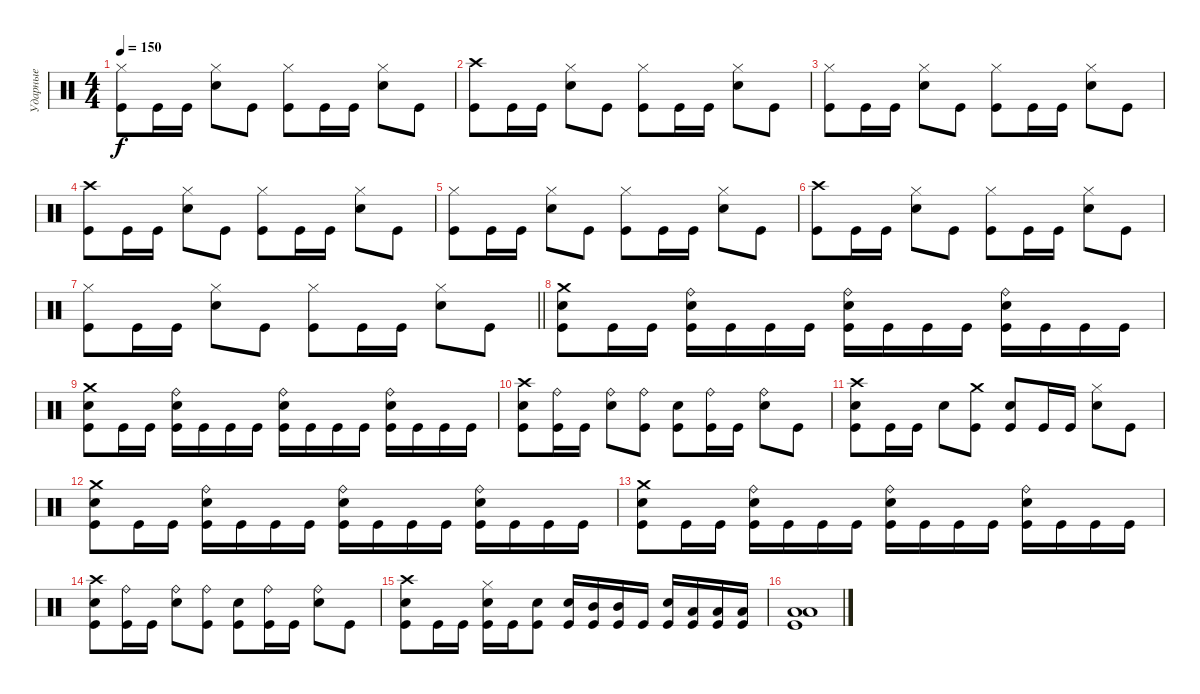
\track ("Ударные" "Ударные") {instrument percussion}
\staff {score}
\articulation defaults
\ts (4 4)
\tempo 150
\clef neutral
\ks c
("Hi-Hat (closed)" "Kick (hit)").8{dy f} "Kick (hit)".16 "Kick (hit)".16 ("Hi-Hat (closed)" "Electric Snare (hit)").8 "Kick (hit)".8 ("Hi-Hat (closed)" "Kick (hit)").8 "Kick (hit)".16 "Kick (hit)".16 ("Hi-Hat (closed)" "Electric Snare (hit)").8 "Kick (hit)".8 |
("Crash high (hit)" "Kick (hit)").8 "Kick (hit)".16 "Kick (hit)".16 ("Hi-Hat (closed)" "Electric Snare (hit)").8 "Kick (hit)".8 ("Hi-Hat (closed)" "Kick (hit)").8 "Kick (hit)".16 "Kick (hit)".16 ("Hi-Hat (closed)" "Electric Snare (hit)").8 "Kick (hit)".8 |
("Hi-Hat (closed)" "Kick (hit)").8 "Kick (hit)".16 "Kick (hit)".16 ("Hi-Hat (closed)" "Electric Snare (hit)").8 "Kick (hit)".8 ("Hi-Hat (closed)" "Kick (hit)").8 "Kick (hit)".16 "Kick (hit)".16 ("Hi-Hat (closed)" "Electric Snare (hit)").8 "Kick (hit)".8 |
("Crash high (hit)" "Kick (hit)").8 "Kick (hit)".16 "Kick (hit)".16 ("Hi-Hat (closed)" "Electric Snare (hit)").8 "Kick (hit)".8 ("Hi-Hat (closed)" "Kick (hit)").8 "Kick (hit)".16 "Kick (hit)".16 ("Hi-Hat (closed)" "Electric Snare (hit)").8 "Kick (hit)".8 |
("Hi-Hat (closed)" "Kick (hit)").8 "Kick (hit)".16 "Kick (hit)".16 ("Hi-Hat (closed)" "Electric Snare (hit)").8 "Kick (hit)".8 ("Hi-Hat (closed)" "Kick (hit)").8 "Kick (hit)".16 "Kick (hit)".16 ("Hi-Hat (closed)" "Electric Snare (hit)").8 "Kick (hit)".8 |
("Crash high (hit)" "Kick (hit)").8 "Kick (hit)".16 "Kick (hit)".16 ("Hi-Hat (closed)" "Electric Snare (hit)").8 "Kick (hit)".8 ("Hi-Hat (closed)" "Kick (hit)").8 "Kick (hit)".16 "Kick (hit)".16 ("Hi-Hat (closed)" "Electric Snare (hit)").8 "Kick (hit)".8 |
\barLineRight lightlight
("Hi-Hat (closed)" "Kick (hit)").8 "Kick (hit)".16 "Kick (hit)".16 ("Hi-Hat (closed)" "Electric Snare (hit)").8 "Kick (hit)".8 ("Hi-Hat (closed)" "Kick (hit)").8 "Kick (hit)".16 "Kick (hit)".16 ("Hi-Hat (closed)" "Electric Snare (hit)").8 "Kick (hit)".8 |
("Crash medium (hit)" "Electric Snare (hit)" "Kick (hit)").8 "Kick (hit)".16 "Kick (hit)".16 ("Ride (bell)" "Electric Snare (hit)" "Kick (hit)").16 "Kick (hit)".16 "Kick (hit)".16 "Kick (hit)".16 ("Ride (bell)" "Electric Snare (hit)" "Kick (hit)").16 "Kick (hit)".16 "Kick (hit)".16 "Kick (hit)".16 ("Ride (bell)" "Electric Snare (hit)" "Kick (hit)").16 "Kick (hit)".16 "Kick (hit)".16 "Kick (hit)".16 |
("Crash medium (hit)" "Electric Snare (hit)" "Kick (hit)").8 "Kick (hit)".16 "Kick (hit)".16 ("Ride (bell)" "Electric Snare (hit)" "Kick (hit)").16 "Kick (hit)".16 "Kick (hit)".16 "Kick (hit)".16 ("Ride (bell)" "Electric Snare (hit)" "Kick (hit)").16 "Kick (hit)".16 "Kick (hit)".16 "Kick (hit)".16 ("Ride (bell)" "Electric Snare (hit)" "Kick (hit)").16 "Kick (hit)".16 "Kick (hit)".16 "Kick (hit)".16 |
("Crash high (hit)" "Electric Snare (hit)" "Kick (hit)").8 ("Ride (bell)" "Kick (hit)").16 "Kick (hit)".16 ("Ride (bell)" "Electric Snare (hit)").8 ("Ride (bell)" "Kick (hit)").8 ("Electric Snare (hit)" "Kick (hit)").8 ("Ride (bell)" "Kick (hit)").16 "Kick (hit)".16 ("Ride (bell)" "Electric Snare (hit)").8 "Kick (hit)".8 |
("Crash high (hit)" "Electric Snare (hit)" "Kick (hit)").8 "Kick (hit)".16 "Kick (hit)".16 "Electric Snare (hit)".8 ("Crash medium (hit)" "Kick (hit)").8 ("Electric Snare (hit)" "Kick (hit)").8 "Kick (hit)".16 "Kick (hit)".16 ("Hi-Hat (closed)" "Electric Snare (hit)").8 "Kick (hit)".8 |
("Crash medium (hit)" "Electric Snare (hit)" "Kick (hit)").8 "Kick (hit)".16 "Kick (hit)".16 ("Ride (bell)" "Electric Snare (hit)" "Kick (hit)").16 "Kick (hit)".16 "Kick (hit)".16 "Kick (hit)".16 ("Ride (bell)" "Electric Snare (hit)" "Kick (hit)").16 "Kick (hit)".16 "Kick (hit)".16 "Kick (hit)".16 ("Ride (bell)" "Electric Snare (hit)" "Kick (hit)").16 "Kick (hit)".16 "Kick (hit)".16 "Kick (hit)".16 |
("Crash medium (hit)" "Electric Snare (hit)" "Kick (hit)").8 "Kick (hit)".16 "Kick (hit)".16 ("Ride (bell)" "Electric Snare (hit)" "Kick (hit)").16 "Kick (hit)".16 "Kick (hit)".16 "Kick (hit)".16 ("Ride (bell)" "Electric Snare (hit)" "Kick (hit)").16 "Kick (hit)".16 "Kick (hit)".16 "Kick (hit)".16 ("Ride (bell)" "Electric Snare (hit)" "Kick (hit)").16 "Kick (hit)".16 "Kick (hit)".16 "Kick (hit)".16 |
("Crash high (hit)" "Electric Snare (hit)" "Kick (hit)").8 ("Ride (bell)" "Kick (hit)").16 "Kick (hit)".16 ("Ride (bell)" "Electric Snare (hit)").8 ("Ride (bell)" "Kick (hit)").8 ("Electric Snare (hit)" "Kick (hit)").8 ("Ride (bell)" "Kick (hit)").16 "Kick (hit)".16 ("Ride (bell)" "Electric Snare (hit)").8 "Kick (hit)".8 |
("Crash high (hit)" "Electric Snare (hit)" "Kick (hit)").8 "Kick (hit)".16 "Kick (hit)".16 ("Hi-Hat (closed)" "Electric Snare (hit)" "Kick (hit)").16 "Kick (hit)".16 ("Electric Snare (hit)" "Kick (hit)").8 ("Electric Snare (hit)" "Kick (hit)").16 ("Mid Tom (hit)" "Kick (hit)").16 ("Mid Tom (hit)" "Kick (hit)").16 "Kick (hit)".16 ("Electric Snare (hit)" "Kick (hit)").16 ("Low Tom (hit)" "Kick (hit)").16 ("Low Tom (hit)" "Kick (hit)").16 ("Low Tom (hit)" "Kick (hit)").16 |
("Low Tom (hit)" "Low Tom (hit)" "Kick (hit)").1
